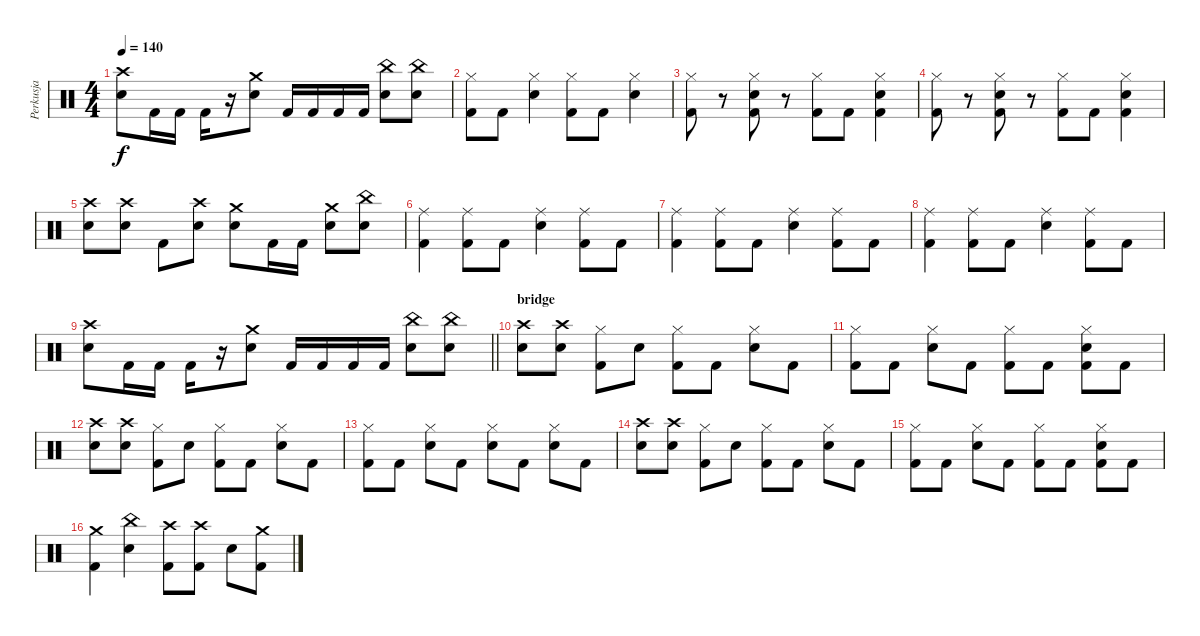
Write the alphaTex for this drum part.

\track ("Perkusja" "Perkusja") {instrument percussion}
\staff {score}
\articulation defaults
\ts (4 4)
\tempo 140
\clef neutral
\ks c
("Crash high (hit)" "Snare (hit) 2").8{dy f} "Kick (hit) 2".16 "Kick (hit) 2".16 "Kick (hit) 2".16 r.16 ("Crash medium (hit)" "Snare (hit) 2").8 "Kick (hit) 2".16 "Kick (hit) 2".16 "Kick (hit) 2".16 "Kick (hit) 2".16 ("China (hit)" "Snare (hit) 2").8 ("China (hit)" "Snare (hit) 2").8 |
("Hi-Hat (closed)" "Kick (hit) 2").8 "Kick (hit) 2".8 ("Hi-Hat (closed)" "Snare (hit) 2").4 ("Hi-Hat (closed)" "Kick (hit) 2").8 "Kick (hit) 2".8 ("Hi-Hat (closed)" "Snare (hit) 2").4 |
("Hi-Hat (closed)" "Kick (hit) 2").8 r.8 ("Hi-Hat (closed)" "Kick (hit) 2" "Snare (hit) 2").8 r.8 ("Hi-Hat (closed)" "Kick (hit) 2").8 "Kick (hit) 2".8 ("Hi-Hat (closed)" "Kick (hit) 2" "Snare (hit) 2").4 |
("Hi-Hat (closed)" "Kick (hit) 2").8 r.8 ("Hi-Hat (closed)" "Kick (hit) 2" "Snare (hit) 2").8 r.8 ("Hi-Hat (closed)" "Kick (hit) 2").8 "Kick (hit) 2".8 ("Hi-Hat (closed)" "Kick (hit) 2" "Snare (hit) 2").4 |
("Snare (hit) 2" "Crash high (hit)").8 ("Snare (hit) 2" "Crash high (hit)").8 "Kick (hit) 2".8 ("Snare (hit) 2" "Crash high (hit)").8 ("Snare (hit) 2" "Crash medium (hit)").8 "Kick (hit) 2".16 "Kick (hit) 2".16 ("Snare (hit) 2" "Crash medium (hit)").8 ("Snare (hit) 2" "China (hit)").8 |
("Ride (middle)" "Kick (hit) 2").4 ("Ride (middle)" "Kick (hit) 2").8 "Kick (hit) 2".8 ("Ride (middle)" "Snare (hit) 2").4 ("Ride (middle)" "Kick (hit) 2").8 "Kick (hit) 2".8 |
("Ride (middle)" "Kick (hit) 2").4 ("Ride (middle)" "Kick (hit) 2").8 "Kick (hit) 2".8 ("Ride (middle)" "Snare (hit) 2").4 ("Ride (middle)" "Kick (hit) 2").8 "Kick (hit) 2".8 |
("Ride (middle)" "Kick (hit) 2").4 ("Ride (middle)" "Kick (hit) 2").8 "Kick (hit) 2".8 ("Ride (middle)" "Snare (hit) 2").4 ("Ride (middle)" "Kick (hit) 2").8 "Kick (hit) 2".8 |
\barLineRight lightlight
("Crash high (hit)" "Snare (hit) 2").8 "Kick (hit) 2".16 "Kick (hit) 2".16 "Kick (hit) 2".16 r.16 ("Crash medium (hit)" "Snare (hit) 2").8 "Kick (hit) 2".16 "Kick (hit) 2".16 "Kick (hit) 2".16 "Kick (hit) 2".16 ("China (hit)" "Snare (hit) 2").8 ("China (hit)" "Snare (hit) 2").8 |
\section ("" "bridge")
("Crash high (hit)" "Snare (hit) 2").8 ("Crash high (hit)" "Snare (hit) 2").8 ("Hi-Hat (closed)" "Kick (hit) 2").8 "Snare (hit) 2".8 ("Hi-Hat (closed)" "Kick (hit) 2").8 "Kick (hit) 2".8 ("Hi-Hat (closed)" "Snare (hit) 2").8 "Kick (hit) 2".8 |
("Hi-Hat (closed)" "Kick (hit) 2").8 "Kick (hit) 2".8 ("Hi-Hat (closed)" "Snare (hit) 2").8 "Kick (hit) 2".8 ("Hi-Hat (closed)" "Kick (hit) 2").8 "Kick (hit) 2".8 ("Hi-Hat (closed)" "Snare (hit) 2" "Kick (hit) 2").8 "Kick (hit) 2".8 |
("Crash high (hit)" "Snare (hit) 2").8 ("Crash high (hit)" "Snare (hit) 2").8 ("Hi-Hat (closed)" "Kick (hit) 2").8 "Snare (hit) 2".8 ("Hi-Hat (closed)" "Kick (hit) 2").8 "Kick (hit) 2".8 ("Hi-Hat (closed)" "Snare (hit) 2").8 "Kick (hit) 2".8 |
("Hi-Hat (closed)" "Kick (hit) 2").8 "Kick (hit) 2".8 ("Hi-Hat (closed)" "Snare (hit) 2").8 "Kick (hit) 2".8 ("Hi-Hat (closed)" "Snare (hit) 2").8 "Kick (hit) 2".8 ("Hi-Hat (closed)" "Snare (hit) 2").8 "Kick (hit) 2".8 |
("Crash high (hit)" "Snare (hit) 2").8 ("Crash high (hit)" "Snare (hit) 2").8 ("Hi-Hat (closed)" "Kick (hit) 2").8 "Snare (hit) 2".8 ("Hi-Hat (closed)" "Kick (hit) 2").8 "Kick (hit) 2".8 ("Hi-Hat (closed)" "Snare (hit) 2").8 "Kick (hit) 2".8 |
("Hi-Hat (closed)" "Kick (hit) 2").8 "Kick (hit) 2".8 ("Hi-Hat (closed)" "Snare (hit) 2").8 "Kick (hit) 2".8 ("Hi-Hat (closed)" "Kick (hit) 2").8 "Kick (hit) 2".8 ("Hi-Hat (closed)" "Snare (hit) 2" "Kick (hit) 2").8 "Kick (hit) 2".8 |
("Kick (hit) 2" "Crash medium (hit)").4 ("Snare (hit) 2" "China (hit)").4 ("Kick (hit) 2" "Crash high (hit)").8 ("Kick (hit) 2" "Crash high (hit)").8 "Snare (hit) 2".8 ("Kick (hit) 2" "Crash medium (hit)").8
